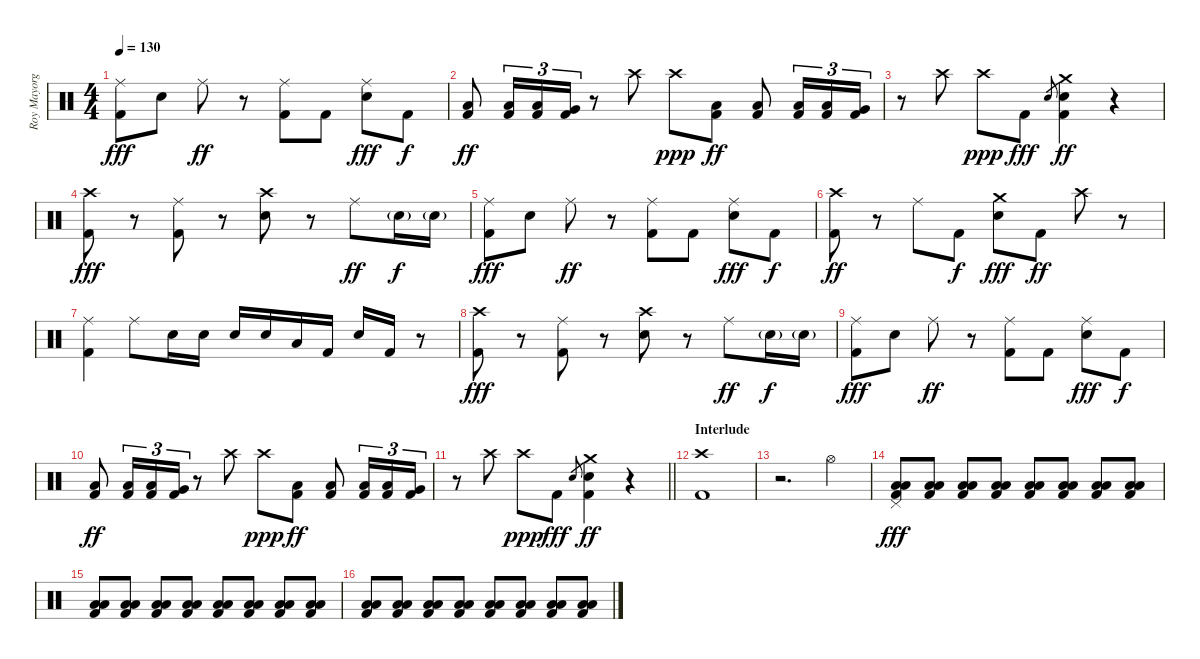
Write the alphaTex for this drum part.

\track ("Roy Mayorga (Drums)" "Roy Mayorg") {instrument percussion}
\staff {score}
\articulation defaults
\ts (4 4)
\tempo 130
\clef neutral
\ks c
("Ride (middle)" "Kick (hit) 2").8{dy fff} "Electric Snare (hit)".8 "Ride (middle)".8{dy ff} r.8 ("Ride (middle)" "Kick (hit) 2").8 "Kick (hit) 2".8 ("Ride (middle)" "Electric Snare (hit)").8{dy fff} "Kick (hit) 2".8{dy f} |
("Low Tom (hit)" "Kick (hit) 2").8{dy ff} ("Low Tom (hit)" "Kick (hit) 2").16{tu (3 2)} ("Low Tom (hit)" "Kick (hit) 2").16{tu (3 2)} ("Very Low Tom (hit)" "Kick (hit) 2").16{tu (3 2)} r.8 "Crash high (hit)".8 "Crash high (hit)".8{dy ppp} ("Low Tom (hit)" "Kick (hit) 2").8{dy ff} ("Low Tom (hit)" "Kick (hit) 2").8 ("Low Tom (hit)" "Kick (hit) 2").16{tu (3 2)} ("Low Tom (hit)" "Kick (hit) 2").16{tu (3 2)} ("Very Low Tom (hit)" "Kick (hit) 2").16{tu (3 2)} |
r.8 "Crash high (hit)".8 "Crash high (hit)".8{dy ppp} "Kick (hit) 2".8{dy fff} "Electric Snare (hit)".8{gr} ("Crash medium (hit)" "Electric Snare (hit)" "Kick (hit) 2").4{dy ff} r.4 |
("Crash high (hit)" "Kick (hit) 2").8{dy fff} r.8 ("Ride (middle)" "Kick (hit) 2").8 r.8 ("Crash high (hit)" "Electric Snare (hit)").8 r.8 "Ride (middle)".8{dy ff} "Electric Snare (hit)"{g}.16{dy f} "Electric Snare (hit)"{g}.16 |
("Ride (middle)" "Kick (hit) 2").8{dy fff} "Electric Snare (hit)".8 "Ride (middle)".8{dy ff} r.8 ("Ride (middle)" "Kick (hit) 2").8 "Kick (hit) 2".8 ("Ride (middle)" "Electric Snare (hit)").8{dy fff} "Kick (hit) 2".8{dy f} |
("Crash high (hit)" "Kick (hit) 2").8{dy ff} r.8 "Ride (middle)".8 "Kick (hit) 2".8{dy f} ("Crash medium (hit)" "Electric Snare (hit)").8{dy fff} "Kick (hit) 2".8{dy ff} "Crash high (hit)".8 r.8 |
("Ride (middle)" "Kick (hit) 2").4 "Ride (middle)".8 "Electric Snare (hit)".16 "Electric Snare (hit)".16 "Electric Snare (hit)".16 "Electric Snare (hit)".16 "Low Tom (hit)".16 "Kick (hit) 2".16 "Electric Snare (hit)".16 "Kick (hit) 2".16 r.8 |
("Crash high (hit)" "Kick (hit) 2").8{dy fff} r.8 ("Ride (middle)" "Kick (hit) 2").8 r.8 ("Crash high (hit)" "Electric Snare (hit)").8 r.8 "Ride (middle)".8{dy ff} "Electric Snare (hit)"{g}.16{dy f} "Electric Snare (hit)"{g}.16 |
("Ride (middle)" "Kick (hit) 2").8{dy fff} "Electric Snare (hit)".8 "Ride (middle)".8{dy ff} r.8 ("Ride (middle)" "Kick (hit) 2").8 "Kick (hit) 2".8 ("Ride (middle)" "Electric Snare (hit)").8{dy fff} "Kick (hit) 2".8{dy f} |
("Low Tom (hit)" "Kick (hit) 2").8{dy ff} ("Low Tom (hit)" "Kick (hit) 2").16{tu (3 2)} ("Low Tom (hit)" "Kick (hit) 2").16{tu (3 2)} ("Very Low Tom (hit)" "Kick (hit) 2").16{tu (3 2)} r.8 "Crash high (hit)".8 "Crash high (hit)".8{dy ppp} ("Low Tom (hit)" "Kick (hit) 2").8{dy ff} ("Low Tom (hit)" "Kick (hit) 2").8 ("Low Tom (hit)" "Kick (hit) 2").16{tu (3 2)} ("Low Tom (hit)" "Kick (hit) 2").16{tu (3 2)} ("Very Low Tom (hit)" "Kick (hit) 2").16{tu (3 2)} |
\barLineRight lightlight
r.8 "Crash high (hit)".8 "Crash high (hit)".8{dy ppp} "Kick (hit) 2".8{dy fff} "Electric Snare (hit)".8{gr} ("Crash medium (hit)" "Electric Snare (hit)" "Kick (hit) 2").4{dy ff} r.4 |
\section ("" "Interlude")
("Crash high (hit)" "Kick (hit) 2").1 |
r.2{d} "Hi-Hat (open)".4 |
("Pedal Hi-Hat (hit)" "Low Tom (hit)" "Low Floor Tom (hit)" "Kick (hit) 2").8{dy fff} ("Low Tom (hit)" "Low Floor Tom (hit)" "Kick (hit) 2").8 ("Low Tom (hit)" "Low Floor Tom (hit)" "Kick (hit) 2").8 ("Low Tom (hit)" "Low Floor Tom (hit)" "Kick (hit) 2").8 ("Low Tom (hit)" "Low Floor Tom (hit)" "Kick (hit) 2").8 ("Low Tom (hit)" "Low Floor Tom (hit)" "Kick (hit) 2").8 ("Low Tom (hit)" "Low Floor Tom (hit)" "Kick (hit) 2").8 ("Low Tom (hit)" "Low Floor Tom (hit)" "Kick (hit) 2").8 |
("Low Tom (hit)" "Low Floor Tom (hit)" "Kick (hit) 2").8 ("Low Tom (hit)" "Low Floor Tom (hit)" "Kick (hit) 2").8 ("Low Tom (hit)" "Low Floor Tom (hit)" "Kick (hit) 2").8 ("Low Tom (hit)" "Low Floor Tom (hit)" "Kick (hit) 2").8 ("Low Tom (hit)" "Low Floor Tom (hit)" "Kick (hit) 2").8 ("Low Tom (hit)" "Low Floor Tom (hit)" "Kick (hit) 2").8 ("Low Tom (hit)" "Low Floor Tom (hit)" "Kick (hit) 2").8 ("Low Tom (hit)" "Low Floor Tom (hit)" "Kick (hit) 2").8 |
("Low Tom (hit)" "Low Floor Tom (hit)" "Kick (hit) 2").8 ("Low Tom (hit)" "Low Floor Tom (hit)" "Kick (hit) 2").8 ("Low Tom (hit)" "Low Floor Tom (hit)" "Kick (hit) 2").8 ("Low Tom (hit)" "Low Floor Tom (hit)" "Kick (hit) 2").8 ("Low Tom (hit)" "Low Floor Tom (hit)" "Kick (hit) 2").8 ("Low Tom (hit)" "Low Floor Tom (hit)" "Kick (hit) 2").8 ("Low Tom (hit)" "Low Floor Tom (hit)" "Kick (hit) 2").8 ("Low Tom (hit)" "Low Floor Tom (hit)" "Kick (hit) 2").8
